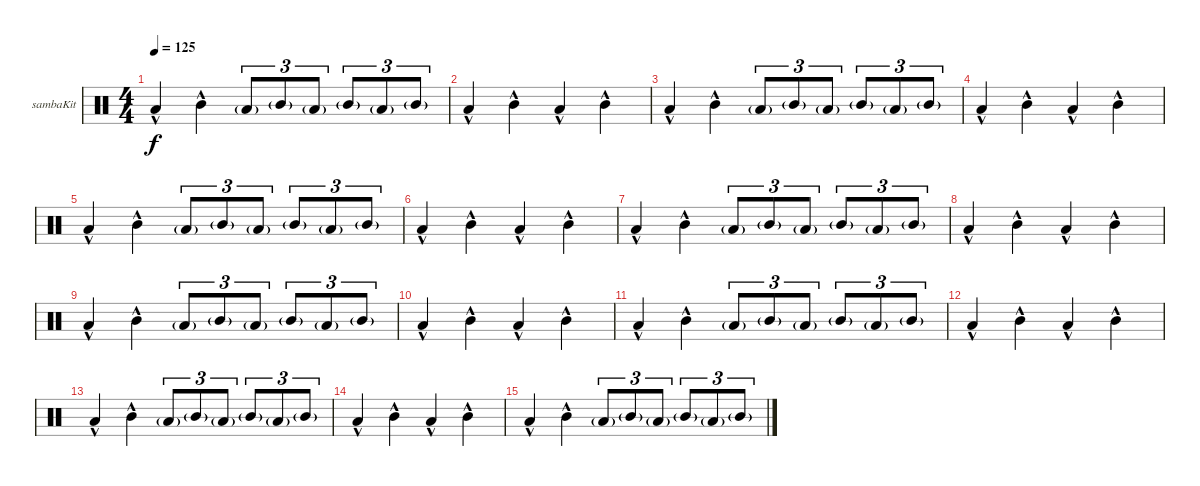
\defaultSystemsLayout 4
\bracketExtendMode groupsimilarinstruments
\firstSystemTrackNameOrientation horizontal
\otherSystemsTrackNameOrientation horizontal
\track ("Kit-Samba" "sambaKit") {instrument percussion}
\staff {score}
\articulation defaults
\ts (4 4)
\tempo 125
\clef neutral
\scale
0.333333
\ks c "Low Tom (hit)"{hac}.4{dy f} "Mid Tom (hit)"{hac}.4 "Low Tom (hit)"{g}.8{tu (3 2)} "Mid Tom (hit)"{g}.8{tu (3 2)} "Low Tom (hit)"{g}.8{tu (3 2)} "Mid Tom (hit)"{g}.8{tu (3 2)} "Low Tom (hit)"{g}.8{tu (3 2)} "Mid Tom (hit)"{g}.8{tu (3 2)}
|
\scale
0.333333 "Low Tom (hit)"{hac}.4 "Mid Tom (hit)"{hac}.4 "Low Tom (hit)"{hac}.4 "Mid Tom (hit)"{hac}.4 |
\scale
0.333333 "Low Tom (hit)"{hac}.4 "Mid Tom (hit)"{hac}.4 "Low Tom (hit)"{g}.8{tu (3 2)} "Mid Tom (hit)"{g}.8{tu (3 2)} "Low Tom (hit)"{g}.8{tu (3 2)} "Mid Tom (hit)"{g}.8{tu (3 2)} "Low Tom (hit)"{g}.8{tu (3 2)} "Mid Tom (hit)"{g}.8{tu (3 2)} |
\scale
0.333333 "Low Tom (hit)"{hac}.4 "Mid Tom (hit)"{hac}.4 "Low Tom (hit)"{hac}.4 "Mid Tom (hit)"{hac}.4 |
\scale
0.333333 "Low Tom (hit)"{hac}.4 "Mid Tom (hit)"{hac}.4 "Low Tom (hit)"{g}.8{tu (3 2)} "Mid Tom (hit)"{g}.8{tu (3 2)} "Low Tom (hit)"{g}.8{tu (3 2)} "Mid Tom (hit)"{g}.8{tu (3 2)} "Low Tom (hit)"{g}.8{tu (3 2)} "Mid Tom (hit)"{g}.8{tu (3 2)} |
\scale
0.333333 "Low Tom (hit)"{hac}.4 "Mid Tom (hit)"{hac}.4 "Low Tom (hit)"{hac}.4 "Mid Tom (hit)"{hac}.4 |
\scale
0.333333 "Low Tom (hit)"{hac}.4 "Mid Tom (hit)"{hac}.4 "Low Tom (hit)"{g}.8{tu (3 2)} "Mid Tom (hit)"{g}.8{tu (3 2)} "Low Tom (hit)"{g}.8{tu (3 2)} "Mid Tom (hit)"{g}.8{tu (3 2)} "Low Tom (hit)"{g}.8{tu (3 2)} "Mid Tom (hit)"{g}.8{tu (3 2)} |
\scale
0.333333 "Low Tom (hit)"{hac}.4 "Mid Tom (hit)"{hac}.4 "Low Tom (hit)"{hac}.4 "Mid Tom (hit)"{hac}.4 |
\scale
0.333333 "Low Tom (hit)"{hac}.4 "Mid Tom (hit)"{hac}.4 "Low Tom (hit)"{g}.8{tu (3 2)} "Mid Tom (hit)"{g}.8{tu (3 2)} "Low Tom (hit)"{g}.8{tu (3 2)} "Mid Tom (hit)"{g}.8{tu (3 2)} "Low Tom (hit)"{g}.8{tu (3 2)} "Mid Tom (hit)"{g}.8{tu (3 2)} |
\scale
0.333333 "Low Tom (hit)"{hac}.4 "Mid Tom (hit)"{hac}.4 "Low Tom (hit)"{hac}.4 "Mid Tom (hit)"{hac}.4 |
\scale
0.333333 "Low Tom (hit)"{hac}.4 "Mid Tom (hit)"{hac}.4 "Low Tom (hit)"{g}.8{tu (3 2)} "Mid Tom (hit)"{g}.8{tu (3 2)} "Low Tom (hit)"{g}.8{tu (3 2)} "Mid Tom (hit)"{g}.8{tu (3 2)} "Low Tom (hit)"{g}.8{tu (3 2)} "Mid Tom (hit)"{g}.8{tu (3 2)} |
\scale
0.333333 "Low Tom (hit)"{hac}.4 "Mid Tom (hit)"{hac}.4 "Low Tom (hit)"{hac}.4 "Mid Tom (hit)"{hac}.4 |
\scale
0.333333 "Low Tom (hit)"{hac}.4 "Mid Tom (hit)"{hac}.4 "Low Tom (hit)"{g}.8{tu (3 2)} "Mid Tom (hit)"{g}.8{tu (3 2)} "Low Tom (hit)"{g}.8{tu (3 2)} "Mid Tom (hit)"{g}.8{tu (3 2)} "Low Tom (hit)"{g}.8{tu (3 2)} "Mid Tom (hit)"{g}.8{tu (3 2)} |
\scale
0.333333 "Low Tom (hit)"{hac}.4 "Mid Tom (hit)"{hac}.4 "Low Tom (hit)"{hac}.4 "Mid Tom (hit)"{hac}.4 |
\scale
0.333333 "Low Tom (hit)"{hac}.4 "Mid Tom (hit)"{hac}.4 "Low Tom (hit)"{g}.8{tu (3 2)} "Mid Tom (hit)"{g}.8{tu (3 2)} "Low Tom (hit)"{g}.8{tu (3 2)} "Mid Tom (hit)"{g}.8{tu (3 2)} "Low Tom (hit)"{g}.8{tu (3 2)} "Mid Tom (hit)"{g}.8{tu (3 2)} |
\scale
0.333333
